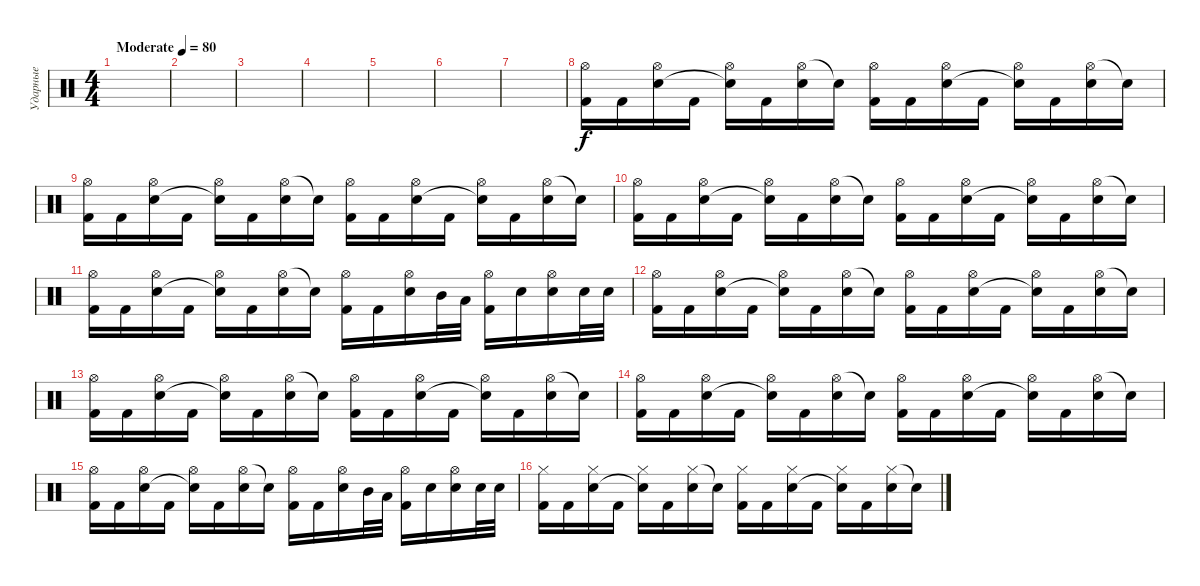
\track ("Ударные" "Ударные") {instrument percussion}
\staff {score}
\articulation defaults
\ts (4 4)
\tempo (80 "Moderate")
\clef neutral
\ks c
|
|
|
|
|
|
|
("Hi-Hat (open)" "Kick (hit) 2").16 "Kick (hit) 2".16 ("Hi-Hat (open)" "Electric Snare (hit)").16 "Kick (hit) 2".16 ("Hi-Hat (open)" "Snare (hit)"{t}).16 "Kick (hit) 2".16 ("Hi-Hat (open)" "Electric Snare (hit)").16 "Snare (hit)"{t}.16 ("Hi-Hat (open)" "Kick (hit) 2").16 "Kick (hit) 2".16 ("Hi-Hat (open)" "Electric Snare (hit)").16 "Kick (hit) 2".16 ("Hi-Hat (open)" "Snare (hit)"{t}).16 "Kick (hit) 2".16 ("Hi-Hat (open)" "Electric Snare (hit)").16 "Snare (hit)"{t}.16 |
("Hi-Hat (open)" "Kick (hit) 2").16 "Kick (hit) 2".16 ("Hi-Hat (open)" "Electric Snare (hit)").16 "Kick (hit) 2".16 ("Hi-Hat (open)" "Snare (hit)"{t}).16 "Kick (hit) 2".16 ("Hi-Hat (open)" "Electric Snare (hit)").16 "Snare (hit)"{t}.16 ("Hi-Hat (open)" "Kick (hit) 2").16 "Kick (hit) 2".16 ("Hi-Hat (open)" "Electric Snare (hit)").16 "Kick (hit) 2".16 ("Hi-Hat (open)" "Snare (hit)"{t}).16 "Kick (hit) 2".16 ("Hi-Hat (open)" "Electric Snare (hit)").16 "Snare (hit)"{t}.16 |
("Hi-Hat (open)" "Kick (hit) 2").16 "Kick (hit) 2".16 ("Hi-Hat (open)" "Electric Snare (hit)").16 "Kick (hit) 2".16 ("Hi-Hat (open)" "Snare (hit)"{t}).16 "Kick (hit) 2".16 ("Hi-Hat (open)" "Electric Snare (hit)").16 "Snare (hit)"{t}.16 ("Hi-Hat (open)" "Kick (hit) 2").16 "Kick (hit) 2".16 ("Hi-Hat (open)" "Electric Snare (hit)").16 "Kick (hit) 2".16 ("Hi-Hat (open)" "Snare (hit)"{t}).16 "Kick (hit) 2".16 ("Hi-Hat (open)" "Electric Snare (hit)").16 "Snare (hit)"{t}.16 |
("Hi-Hat (open)" "Kick (hit) 2").16 "Kick (hit) 2".16 ("Hi-Hat (open)" "Electric Snare (hit)").16 "Kick (hit) 2".16 ("Hi-Hat (open)" "Snare (hit)"{t}).16 "Kick (hit) 2".16 ("Hi-Hat (open)" "Electric Snare (hit)").16 "Snare (hit)"{t}.16 ("Hi-Hat (open)" "Kick (hit) 2").16 "Kick (hit) 2".16 ("Hi-Hat (open)" "Electric Snare (hit)").16 "Mid Tom (hit)".32 "Low Tom (hit)".32 ("Hi-Hat (open)" "Kick (hit) 2").16 "Electric Snare (hit)".16 ("Hi-Hat (open)" "Electric Snare (hit)").16 "Electric Snare (hit)".32 "Electric Snare (hit)".32 |
("Hi-Hat (open)" "Kick (hit) 2").16 "Kick (hit) 2".16 ("Hi-Hat (open)" "Electric Snare (hit)").16 "Kick (hit) 2".16 ("Hi-Hat (open)" "Snare (hit)"{t}).16 "Kick (hit) 2".16 ("Hi-Hat (open)" "Electric Snare (hit)").16 "Snare (hit)"{t}.16 ("Hi-Hat (open)" "Kick (hit) 2").16 "Kick (hit) 2".16 ("Hi-Hat (open)" "Electric Snare (hit)").16 "Kick (hit) 2".16 ("Hi-Hat (open)" "Snare (hit)"{t}).16 "Kick (hit) 2".16 ("Hi-Hat (open)" "Electric Snare (hit)").16 "Snare (hit)"{t}.16 |
("Hi-Hat (open)" "Kick (hit) 2").16 "Kick (hit) 2".16 ("Hi-Hat (open)" "Electric Snare (hit)").16 "Kick (hit) 2".16 ("Hi-Hat (open)" "Snare (hit)"{t}).16 "Kick (hit) 2".16 ("Hi-Hat (open)" "Electric Snare (hit)").16 "Snare (hit)"{t}.16 ("Hi-Hat (open)" "Kick (hit) 2").16 "Kick (hit) 2".16 ("Hi-Hat (open)" "Electric Snare (hit)").16 "Kick (hit) 2".16 ("Hi-Hat (open)" "Snare (hit)"{t}).16 "Kick (hit) 2".16 ("Hi-Hat (open)" "Electric Snare (hit)").16 "Snare (hit)"{t}.16 |
("Hi-Hat (open)" "Kick (hit) 2").16 "Kick (hit) 2".16 ("Hi-Hat (open)" "Electric Snare (hit)").16 "Kick (hit) 2".16 ("Hi-Hat (open)" "Snare (hit)"{t}).16 "Kick (hit) 2".16 ("Hi-Hat (open)" "Electric Snare (hit)").16 "Snare (hit)"{t}.16 ("Hi-Hat (open)" "Kick (hit) 2").16 "Kick (hit) 2".16 ("Hi-Hat (open)" "Electric Snare (hit)").16 "Kick (hit) 2".16 ("Hi-Hat (open)" "Snare (hit)"{t}).16 "Kick (hit) 2".16 ("Hi-Hat (open)" "Electric Snare (hit)").16 "Snare (hit)"{t}.16 |
("Hi-Hat (open)" "Kick (hit) 2").16 "Kick (hit) 2".16 ("Hi-Hat (open)" "Electric Snare (hit)").16 "Kick (hit) 2".16 ("Hi-Hat (open)" "Snare (hit)"{t}).16 "Kick (hit) 2".16 ("Hi-Hat (open)" "Electric Snare (hit)").16 "Snare (hit)"{t}.16 ("Hi-Hat (open)" "Kick (hit) 2").16 "Kick (hit) 2".16 ("Hi-Hat (open)" "Electric Snare (hit)").16 "Mid Tom (hit)".32 "Low Tom (hit)".32 ("Hi-Hat (open)" "Kick (hit) 2").16 "Electric Snare (hit)".16 ("Hi-Hat (open)" "Electric Snare (hit)").16 "Electric Snare (hit)".32 "Electric Snare (hit)".32 |
("Hi-Hat (closed)" "Kick (hit) 2").16 "Kick (hit) 2".16 ("Hi-Hat (closed)" "Electric Snare (hit)").16 "Kick (hit) 2".16 ("Hi-Hat (closed)" "Snare (hit)"{t}).16 "Kick (hit) 2".16 ("Hi-Hat (closed)" "Electric Snare (hit)").16 "Snare (hit)"{t}.16 ("Hi-Hat (closed)" "Kick (hit) 2").16 "Kick (hit) 2".16 ("Hi-Hat (closed)" "Electric Snare (hit)").16 "Kick (hit) 2".16 ("Hi-Hat (closed)" "Snare (hit)"{t}).16 "Kick (hit) 2".16 ("Hi-Hat (closed)" "Electric Snare (hit)").16 "Snare (hit)"{t}.16
